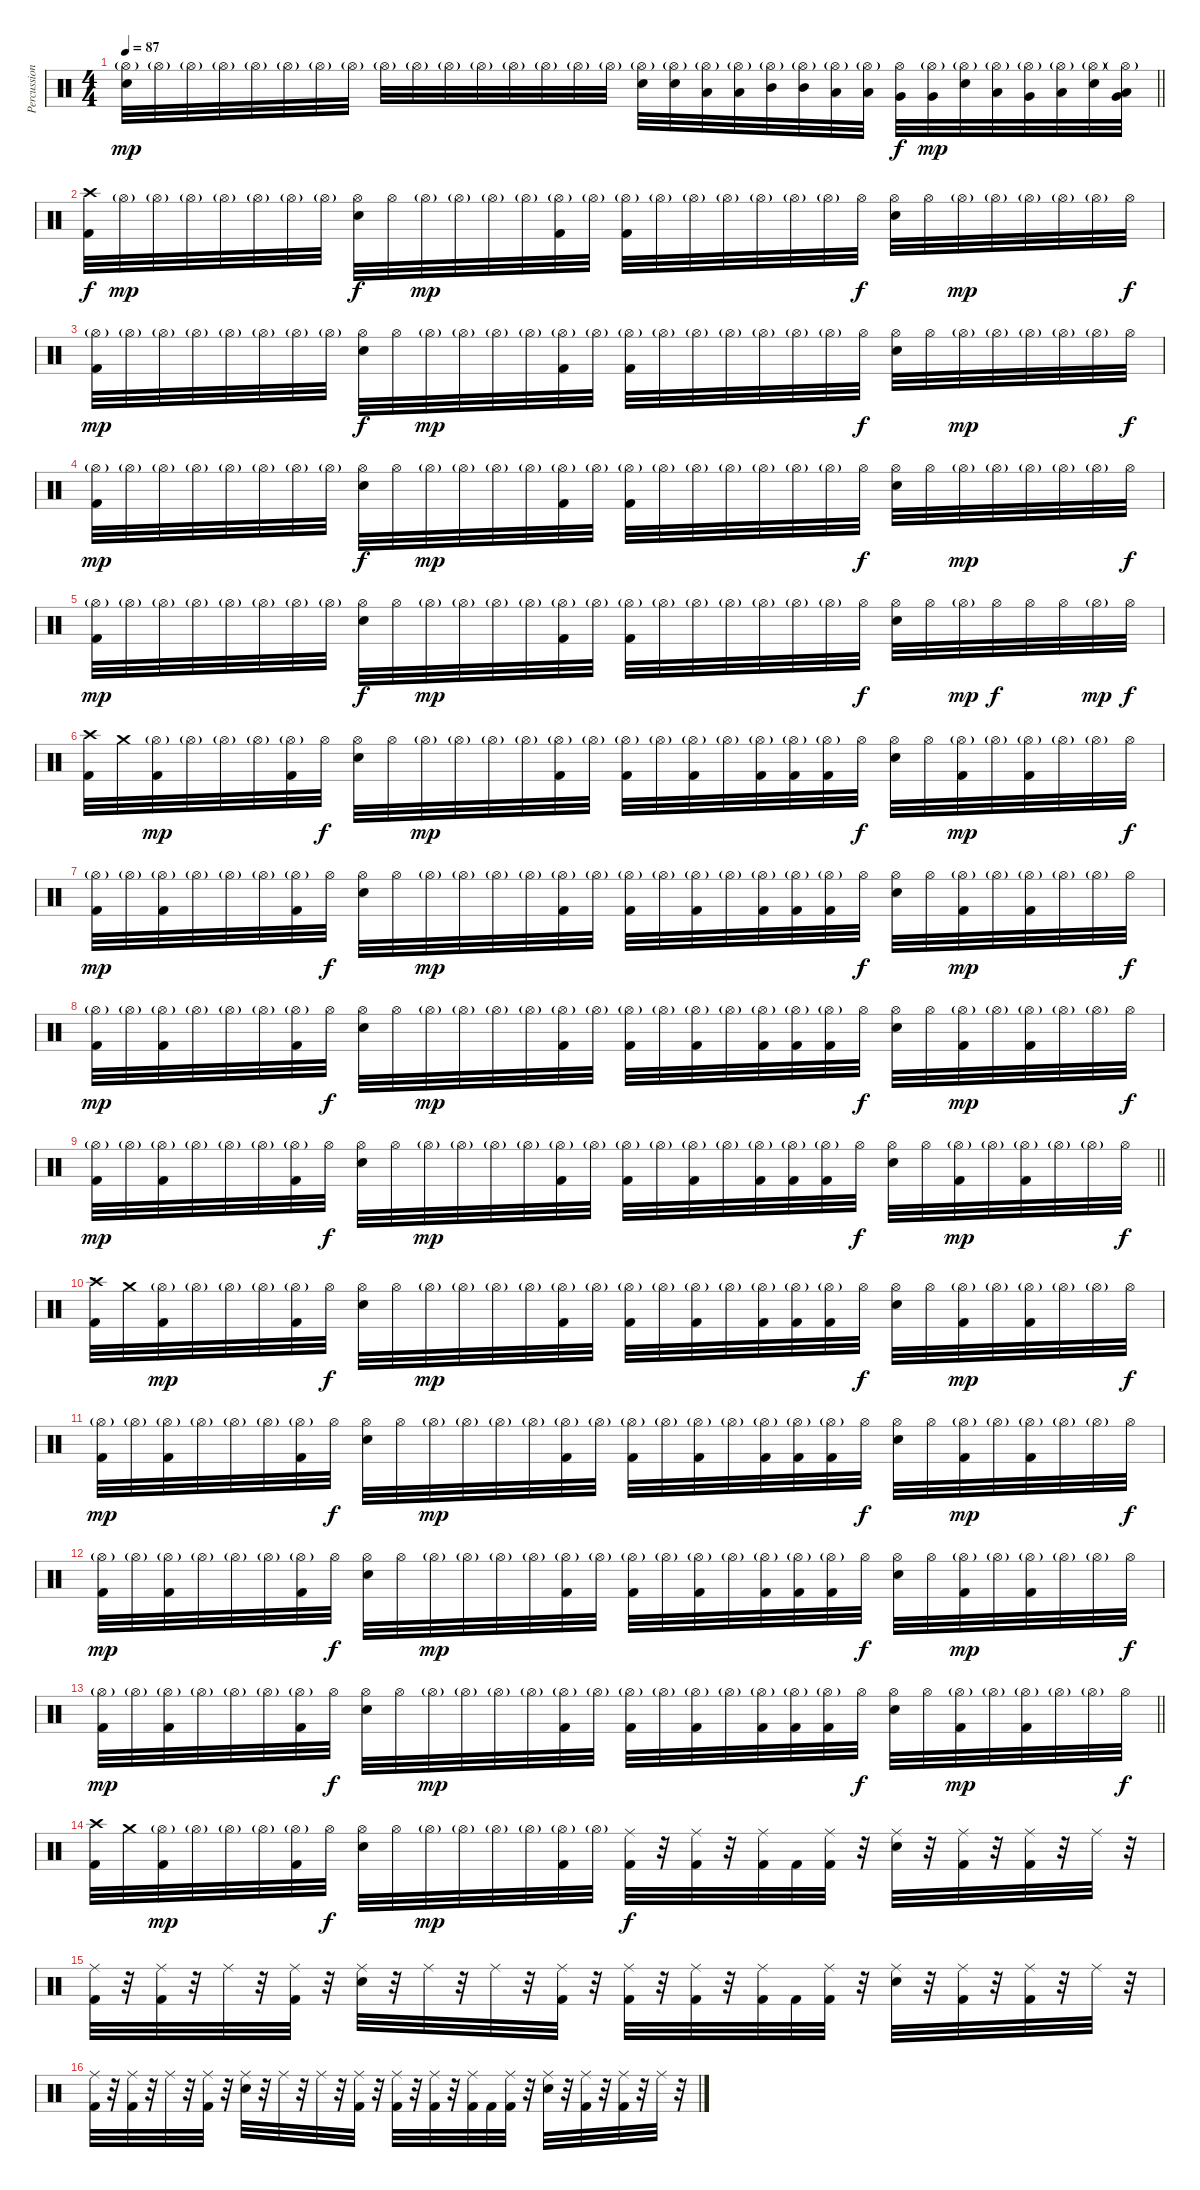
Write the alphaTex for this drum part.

\track ("Percussion" "Percussion") {instrument percussion}
\staff {score}
\articulation defaults
\ts (4 4)
\tempo 87
\clef neutral
\barLineRight lightlight
\ks c
("Hi-Hat (open)"{g} "Electric Snare (hit)").32{dy mp} "Hi-Hat (open)"{g}.32 "Hi-Hat (open)"{g}.32 "Hi-Hat (open)"{g}.32 "Hi-Hat (open)"{g}.32 "Hi-Hat (open)"{g}.32 "Hi-Hat (open)"{g}.32 "Hi-Hat (open)"{g}.32 "Hi-Hat (open)"{g}.32 "Hi-Hat (open)"{g}.32 "Hi-Hat (open)"{g}.32 "Hi-Hat (open)"{g}.32 "Hi-Hat (open)"{g}.32 "Hi-Hat (open)"{g}.32 "Hi-Hat (open)"{g}.32 "Hi-Hat (open)"{g}.32 ("Hi-Hat (open)"{g} "Electric Snare (hit)").32 ("Hi-Hat (open)"{g} "Electric Snare (hit)").32 ("Hi-Hat (open)"{g} "Low Floor Tom (hit)").32 ("Hi-Hat (open)"{g} "Low Floor Tom (hit)").32 ("Hi-Hat (open)"{g} "Mid Tom (hit)").32 ("Hi-Hat (open)"{g} "Mid Tom (hit)").32 ("Hi-Hat (open)"{g} "Low Tom (hit)").32 ("Hi-Hat (open)"{g} "Low Tom (hit)").32 ("Hi-Hat (open)" "Very Low Tom (hit)").32{dy f} ("Hi-Hat (open)"{g} "Very Low Tom (hit)").32{dy mp} ("Hi-Hat (open)"{g} "Electric Snare (hit)").32 ("Hi-Hat (open)"{g} "Low Tom (hit)").32 ("Hi-Hat (open)"{g} "Very Low Tom (hit)").32 ("Hi-Hat (open)"{g} "Low Floor Tom (hit)").32 ("Hi-Hat (open)"{g} "Electric Snare (hit)").32 ("Hi-Hat (open)"{g} "Low Floor Tom (hit)" "Very Low Tom (hit)").32 |
\section ("" ".")
("Crash high (hit)" "Kick (hit) 2").32{dy f} "Hi-Hat (open)"{g}.32{dy mp} "Hi-Hat (open)"{g}.32 "Hi-Hat (open)"{g}.32 "Hi-Hat (open)"{g}.32 "Hi-Hat (open)"{g}.32 "Hi-Hat (open)"{g}.32 "Hi-Hat (open)"{g}.32 ("Hi-Hat (open)" "Snare (hit) 2").32{dy f} "Hi-Hat (open)".32 "Hi-Hat (open)"{g}.32{dy mp} "Hi-Hat (open)"{g}.32 "Hi-Hat (open)"{g}.32 "Hi-Hat (open)"{g}.32 ("Hi-Hat (open)"{g} "Kick (hit) 2").32 "Hi-Hat (open)"{g}.32 ("Hi-Hat (open)"{g} "Kick (hit) 2").32 "Hi-Hat (open)"{g}.32 "Hi-Hat (open)"{g}.32 "Hi-Hat (open)"{g}.32 "Hi-Hat (open)"{g}.32 "Hi-Hat (open)"{g}.32 "Hi-Hat (open)"{g}.32 "Hi-Hat (open)".32{dy f} ("Hi-Hat (open)" "Snare (hit) 2").32 "Hi-Hat (open)".32 "Hi-Hat (open)"{g}.32{dy mp} "Hi-Hat (open)"{g}.32 "Hi-Hat (open)"{g}.32 "Hi-Hat (open)"{g}.32 "Hi-Hat (open)"{g}.32 "Hi-Hat (open)".32{dy f} |
("Hi-Hat (open)"{g} "Kick (hit) 2").32{dy mp} "Hi-Hat (open)"{g}.32 "Hi-Hat (open)"{g}.32 "Hi-Hat (open)"{g}.32 "Hi-Hat (open)"{g}.32 "Hi-Hat (open)"{g}.32 "Hi-Hat (open)"{g}.32 "Hi-Hat (open)"{g}.32 ("Hi-Hat (open)" "Snare (hit) 2").32{dy f} "Hi-Hat (open)".32 "Hi-Hat (open)"{g}.32{dy mp} "Hi-Hat (open)"{g}.32 "Hi-Hat (open)"{g}.32 "Hi-Hat (open)"{g}.32 ("Hi-Hat (open)"{g} "Kick (hit) 2").32 "Hi-Hat (open)"{g}.32 ("Hi-Hat (open)"{g} "Kick (hit) 2").32 "Hi-Hat (open)"{g}.32 "Hi-Hat (open)"{g}.32 "Hi-Hat (open)"{g}.32 "Hi-Hat (open)"{g}.32 "Hi-Hat (open)"{g}.32 "Hi-Hat (open)"{g}.32 "Hi-Hat (open)".32{dy f} ("Hi-Hat (open)" "Snare (hit) 2").32 "Hi-Hat (open)".32 "Hi-Hat (open)"{g}.32{dy mp} "Hi-Hat (open)"{g}.32 "Hi-Hat (open)"{g}.32 "Hi-Hat (open)"{g}.32 "Hi-Hat (open)"{g}.32 "Hi-Hat (open)".32{dy f} |
("Hi-Hat (open)"{g} "Kick (hit) 2").32{dy mp} "Hi-Hat (open)"{g}.32 "Hi-Hat (open)"{g}.32 "Hi-Hat (open)"{g}.32 "Hi-Hat (open)"{g}.32 "Hi-Hat (open)"{g}.32 "Hi-Hat (open)"{g}.32 "Hi-Hat (open)"{g}.32 ("Hi-Hat (open)" "Snare (hit) 2").32{dy f} "Hi-Hat (open)".32 "Hi-Hat (open)"{g}.32{dy mp} "Hi-Hat (open)"{g}.32 "Hi-Hat (open)"{g}.32 "Hi-Hat (open)"{g}.32 ("Hi-Hat (open)"{g} "Kick (hit) 2").32 "Hi-Hat (open)"{g}.32 ("Hi-Hat (open)"{g} "Kick (hit) 2").32 "Hi-Hat (open)"{g}.32 "Hi-Hat (open)"{g}.32 "Hi-Hat (open)"{g}.32 "Hi-Hat (open)"{g}.32 "Hi-Hat (open)"{g}.32 "Hi-Hat (open)"{g}.32 "Hi-Hat (open)".32{dy f} ("Hi-Hat (open)" "Snare (hit) 2").32 "Hi-Hat (open)".32 "Hi-Hat (open)"{g}.32{dy mp} "Hi-Hat (open)"{g}.32 "Hi-Hat (open)"{g}.32 "Hi-Hat (open)"{g}.32 "Hi-Hat (open)"{g}.32 "Hi-Hat (open)".32{dy f} |
("Hi-Hat (open)"{g} "Kick (hit) 2").32{dy mp} "Hi-Hat (open)"{g}.32 "Hi-Hat (open)"{g}.32 "Hi-Hat (open)"{g}.32 "Hi-Hat (open)"{g}.32 "Hi-Hat (open)"{g}.32 "Hi-Hat (open)"{g}.32 "Hi-Hat (open)"{g}.32 ("Hi-Hat (open)" "Snare (hit) 2").32{dy f} "Hi-Hat (open)".32 "Hi-Hat (open)"{g}.32{dy mp} "Hi-Hat (open)"{g}.32 "Hi-Hat (open)"{g}.32 "Hi-Hat (open)"{g}.32 ("Hi-Hat (open)"{g} "Kick (hit) 2").32 "Hi-Hat (open)"{g}.32 ("Hi-Hat (open)"{g} "Kick (hit) 2").32 "Hi-Hat (open)"{g}.32 "Hi-Hat (open)"{g}.32 "Hi-Hat (open)"{g}.32 "Hi-Hat (open)"{g}.32 "Hi-Hat (open)"{g}.32 "Hi-Hat (open)"{g}.32 "Hi-Hat (open)".32{dy f} ("Hi-Hat (open)" "Snare (hit) 2").32 "Hi-Hat (open)".32 "Hi-Hat (open)"{g}.32{dy mp} "Hi-Hat (open)".32{dy f} "Hi-Hat (open)".32 "Hi-Hat (open)".32 "Hi-Hat (open)"{g}.32{dy mp} "Hi-Hat (open)".32{dy f} |
("Crash high (hit)" "Kick (hit) 2").32 "Crash medium (hit)".32 ("Hi-Hat (open)"{g} "Kick (hit) 2").32{dy mp} "Hi-Hat (open)"{g}.32 "Hi-Hat (open)"{g}.32 "Hi-Hat (open)"{g}.32 ("Hi-Hat (open)"{g} "Kick (hit) 2").32 "Hi-Hat (open)".32{dy f} ("Hi-Hat (open)" "Snare (hit) 2").32 "Hi-Hat (open)".32 "Hi-Hat (open)"{g}.32{dy mp} "Hi-Hat (open)"{g}.32 "Hi-Hat (open)"{g}.32 "Hi-Hat (open)"{g}.32 ("Hi-Hat (open)"{g} "Kick (hit) 2").32 "Hi-Hat (open)"{g}.32 ("Hi-Hat (open)"{g} "Kick (hit) 2").32 "Hi-Hat (open)"{g}.32 ("Hi-Hat (open)"{g} "Kick (hit) 2").32 "Hi-Hat (open)"{g}.32 ("Hi-Hat (open)"{g} "Kick (hit) 2").32 ("Hi-Hat (open)"{g} "Kick (hit) 2").32 ("Hi-Hat (open)"{g} "Kick (hit) 2").32 "Hi-Hat (open)".32{dy f} ("Hi-Hat (open)" "Snare (hit) 2").32 "Hi-Hat (open)".32 ("Hi-Hat (open)"{g} "Kick (hit) 2").32{dy mp} "Hi-Hat (open)"{g}.32 ("Hi-Hat (open)"{g} "Kick (hit) 2").32 "Hi-Hat (open)"{g}.32 "Hi-Hat (open)"{g}.32 "Hi-Hat (open)".32{dy f} |
("Hi-Hat (open)"{g} "Kick (hit) 2").32{dy mp} "Hi-Hat (open)"{g}.32 ("Hi-Hat (open)"{g} "Kick (hit) 2").32 "Hi-Hat (open)"{g}.32 "Hi-Hat (open)"{g}.32 "Hi-Hat (open)"{g}.32 ("Hi-Hat (open)"{g} "Kick (hit) 2").32 "Hi-Hat (open)".32{dy f} ("Hi-Hat (open)" "Snare (hit) 2").32 "Hi-Hat (open)".32 "Hi-Hat (open)"{g}.32{dy mp} "Hi-Hat (open)"{g}.32 "Hi-Hat (open)"{g}.32 "Hi-Hat (open)"{g}.32 ("Hi-Hat (open)"{g} "Kick (hit) 2").32 "Hi-Hat (open)"{g}.32 ("Hi-Hat (open)"{g} "Kick (hit) 2").32 "Hi-Hat (open)"{g}.32 ("Hi-Hat (open)"{g} "Kick (hit) 2").32 "Hi-Hat (open)"{g}.32 ("Hi-Hat (open)"{g} "Kick (hit) 2").32 ("Hi-Hat (open)"{g} "Kick (hit) 2").32 ("Hi-Hat (open)"{g} "Kick (hit) 2").32 "Hi-Hat (open)".32{dy f} ("Hi-Hat (open)" "Snare (hit) 2").32 "Hi-Hat (open)".32 ("Hi-Hat (open)"{g} "Kick (hit) 2").32{dy mp} "Hi-Hat (open)"{g}.32 ("Hi-Hat (open)"{g} "Kick (hit) 2").32 "Hi-Hat (open)"{g}.32 "Hi-Hat (open)"{g}.32 "Hi-Hat (open)".32{dy f} |
("Hi-Hat (open)"{g} "Kick (hit) 2").32{dy mp} "Hi-Hat (open)"{g}.32 ("Hi-Hat (open)"{g} "Kick (hit) 2").32 "Hi-Hat (open)"{g}.32 "Hi-Hat (open)"{g}.32 "Hi-Hat (open)"{g}.32 ("Hi-Hat (open)"{g} "Kick (hit) 2").32 "Hi-Hat (open)".32{dy f} ("Hi-Hat (open)" "Snare (hit) 2").32 "Hi-Hat (open)".32 "Hi-Hat (open)"{g}.32{dy mp} "Hi-Hat (open)"{g}.32 "Hi-Hat (open)"{g}.32 "Hi-Hat (open)"{g}.32 ("Hi-Hat (open)"{g} "Kick (hit) 2").32 "Hi-Hat (open)"{g}.32 ("Hi-Hat (open)"{g} "Kick (hit) 2").32 "Hi-Hat (open)"{g}.32 ("Hi-Hat (open)"{g} "Kick (hit) 2").32 "Hi-Hat (open)"{g}.32 ("Hi-Hat (open)"{g} "Kick (hit) 2").32 ("Hi-Hat (open)"{g} "Kick (hit) 2").32 ("Hi-Hat (open)"{g} "Kick (hit) 2").32 "Hi-Hat (open)".32{dy f} ("Hi-Hat (open)" "Snare (hit) 2").32 "Hi-Hat (open)".32 ("Hi-Hat (open)"{g} "Kick (hit) 2").32{dy mp} "Hi-Hat (open)"{g}.32 ("Hi-Hat (open)"{g} "Kick (hit) 2").32 "Hi-Hat (open)"{g}.32 "Hi-Hat (open)"{g}.32 "Hi-Hat (open)".32{dy f} |
\barLineRight lightlight
("Hi-Hat (open)"{g} "Kick (hit) 2").32{dy mp} "Hi-Hat (open)"{g}.32 ("Hi-Hat (open)"{g} "Kick (hit) 2").32 "Hi-Hat (open)"{g}.32 "Hi-Hat (open)"{g}.32 "Hi-Hat (open)"{g}.32 ("Hi-Hat (open)"{g} "Kick (hit) 2").32 "Hi-Hat (open)".32{dy f} ("Hi-Hat (open)" "Snare (hit) 2").32 "Hi-Hat (open)".32 "Hi-Hat (open)"{g}.32{dy mp} "Hi-Hat (open)"{g}.32 "Hi-Hat (open)"{g}.32 "Hi-Hat (open)"{g}.32 ("Hi-Hat (open)"{g} "Kick (hit) 2").32 "Hi-Hat (open)"{g}.32 ("Hi-Hat (open)"{g} "Kick (hit) 2").32 "Hi-Hat (open)"{g}.32 ("Hi-Hat (open)"{g} "Kick (hit) 2").32 "Hi-Hat (open)"{g}.32 ("Hi-Hat (open)"{g} "Kick (hit) 2").32 ("Hi-Hat (open)"{g} "Kick (hit) 2").32 ("Hi-Hat (open)"{g} "Kick (hit) 2").32 "Hi-Hat (open)".32{dy f} ("Hi-Hat (open)" "Snare (hit) 2").32 "Hi-Hat (open)".32 ("Hi-Hat (open)"{g} "Kick (hit) 2").32{dy mp} "Hi-Hat (open)"{g}.32 ("Hi-Hat (open)"{g} "Kick (hit) 2").32 "Hi-Hat (open)"{g}.32 "Hi-Hat (open)"{g}.32 "Hi-Hat (open)".32{dy f} |
\section ("" "..")
("Crash high (hit)" "Kick (hit) 2").32 "Crash medium (hit)".32 ("Hi-Hat (open)"{g} "Kick (hit) 2").32{dy mp} "Hi-Hat (open)"{g}.32 "Hi-Hat (open)"{g}.32 "Hi-Hat (open)"{g}.32 ("Hi-Hat (open)"{g} "Kick (hit) 2").32 "Hi-Hat (open)".32{dy f} ("Hi-Hat (open)" "Snare (hit) 2").32 "Hi-Hat (open)".32 "Hi-Hat (open)"{g}.32{dy mp} "Hi-Hat (open)"{g}.32 "Hi-Hat (open)"{g}.32 "Hi-Hat (open)"{g}.32 ("Hi-Hat (open)"{g} "Kick (hit) 2").32 "Hi-Hat (open)"{g}.32 ("Hi-Hat (open)"{g} "Kick (hit) 2").32 "Hi-Hat (open)"{g}.32 ("Hi-Hat (open)"{g} "Kick (hit) 2").32 "Hi-Hat (open)"{g}.32 ("Hi-Hat (open)"{g} "Kick (hit) 2").32 ("Hi-Hat (open)"{g} "Kick (hit) 2").32 ("Hi-Hat (open)"{g} "Kick (hit) 2").32 "Hi-Hat (open)".32{dy f} ("Hi-Hat (open)" "Snare (hit) 2").32 "Hi-Hat (open)".32 ("Hi-Hat (open)"{g} "Kick (hit) 2").32{dy mp} "Hi-Hat (open)"{g}.32 ("Hi-Hat (open)"{g} "Kick (hit) 2").32 "Hi-Hat (open)"{g}.32 "Hi-Hat (open)"{g}.32 "Hi-Hat (open)".32{dy f} |
("Hi-Hat (open)"{g} "Kick (hit) 2").32{dy mp} "Hi-Hat (open)"{g}.32 ("Hi-Hat (open)"{g} "Kick (hit) 2").32 "Hi-Hat (open)"{g}.32 "Hi-Hat (open)"{g}.32 "Hi-Hat (open)"{g}.32 ("Hi-Hat (open)"{g} "Kick (hit) 2").32 "Hi-Hat (open)".32{dy f} ("Hi-Hat (open)" "Snare (hit) 2").32 "Hi-Hat (open)".32 "Hi-Hat (open)"{g}.32{dy mp} "Hi-Hat (open)"{g}.32 "Hi-Hat (open)"{g}.32 "Hi-Hat (open)"{g}.32 ("Hi-Hat (open)"{g} "Kick (hit) 2").32 "Hi-Hat (open)"{g}.32 ("Hi-Hat (open)"{g} "Kick (hit) 2").32 "Hi-Hat (open)"{g}.32 ("Hi-Hat (open)"{g} "Kick (hit) 2").32 "Hi-Hat (open)"{g}.32 ("Hi-Hat (open)"{g} "Kick (hit) 2").32 ("Hi-Hat (open)"{g} "Kick (hit) 2").32 ("Hi-Hat (open)"{g} "Kick (hit) 2").32 "Hi-Hat (open)".32{dy f} ("Hi-Hat (open)" "Snare (hit) 2").32 "Hi-Hat (open)".32 ("Hi-Hat (open)"{g} "Kick (hit) 2").32{dy mp} "Hi-Hat (open)"{g}.32 ("Hi-Hat (open)"{g} "Kick (hit) 2").32 "Hi-Hat (open)"{g}.32 "Hi-Hat (open)"{g}.32 "Hi-Hat (open)".32{dy f} |
("Hi-Hat (open)"{g} "Kick (hit) 2").32{dy mp} "Hi-Hat (open)"{g}.32 ("Hi-Hat (open)"{g} "Kick (hit) 2").32 "Hi-Hat (open)"{g}.32 "Hi-Hat (open)"{g}.32 "Hi-Hat (open)"{g}.32 ("Hi-Hat (open)"{g} "Kick (hit) 2").32 "Hi-Hat (open)".32{dy f} ("Hi-Hat (open)" "Snare (hit) 2").32 "Hi-Hat (open)".32 "Hi-Hat (open)"{g}.32{dy mp} "Hi-Hat (open)"{g}.32 "Hi-Hat (open)"{g}.32 "Hi-Hat (open)"{g}.32 ("Hi-Hat (open)"{g} "Kick (hit) 2").32 "Hi-Hat (open)"{g}.32 ("Hi-Hat (open)"{g} "Kick (hit) 2").32 "Hi-Hat (open)"{g}.32 ("Hi-Hat (open)"{g} "Kick (hit) 2").32 "Hi-Hat (open)"{g}.32 ("Hi-Hat (open)"{g} "Kick (hit) 2").32 ("Hi-Hat (open)"{g} "Kick (hit) 2").32 ("Hi-Hat (open)"{g} "Kick (hit) 2").32 "Hi-Hat (open)".32{dy f} ("Hi-Hat (open)" "Snare (hit) 2").32 "Hi-Hat (open)".32 ("Hi-Hat (open)"{g} "Kick (hit) 2").32{dy mp} "Hi-Hat (open)"{g}.32 ("Hi-Hat (open)"{g} "Kick (hit) 2").32 "Hi-Hat (open)"{g}.32 "Hi-Hat (open)"{g}.32 "Hi-Hat (open)".32{dy f} |
\barLineRight lightlight
("Hi-Hat (open)"{g} "Kick (hit) 2").32{dy mp} "Hi-Hat (open)"{g}.32 ("Hi-Hat (open)"{g} "Kick (hit) 2").32 "Hi-Hat (open)"{g}.32 "Hi-Hat (open)"{g}.32 "Hi-Hat (open)"{g}.32 ("Hi-Hat (open)"{g} "Kick (hit) 2").32 "Hi-Hat (open)".32{dy f} ("Hi-Hat (open)" "Snare (hit) 2").32 "Hi-Hat (open)".32 "Hi-Hat (open)"{g}.32{dy mp} "Hi-Hat (open)"{g}.32 "Hi-Hat (open)"{g}.32 "Hi-Hat (open)"{g}.32 ("Hi-Hat (open)"{g} "Kick (hit) 2").32 "Hi-Hat (open)"{g}.32 ("Hi-Hat (open)"{g} "Kick (hit) 2").32 "Hi-Hat (open)"{g}.32 ("Hi-Hat (open)"{g} "Kick (hit) 2").32 "Hi-Hat (open)"{g}.32 ("Hi-Hat (open)"{g} "Kick (hit) 2").32 ("Hi-Hat (open)"{g} "Kick (hit) 2").32 ("Hi-Hat (open)"{g} "Kick (hit) 2").32 "Hi-Hat (open)".32{dy f} ("Hi-Hat (open)" "Snare (hit) 2").32 "Hi-Hat (open)".32 ("Hi-Hat (open)"{g} "Kick (hit) 2").32{dy mp} "Hi-Hat (open)"{g}.32 ("Hi-Hat (open)"{g} "Kick (hit) 2").32 "Hi-Hat (open)"{g}.32 "Hi-Hat (open)"{g}.32 "Hi-Hat (open)".32{dy f} |
("Crash high (hit)" "Kick (hit) 2").32 "Crash medium (hit)".32 ("Hi-Hat (open)"{g} "Kick (hit) 2").32{dy mp} "Hi-Hat (open)"{g}.32 "Hi-Hat (open)"{g}.32 "Hi-Hat (open)"{g}.32 ("Hi-Hat (open)"{g} "Kick (hit) 2").32 "Hi-Hat (open)".32{dy f} ("Hi-Hat (open)" "Snare (hit) 2").32 "Hi-Hat (open)".32 "Hi-Hat (open)"{g}.32{dy mp} "Hi-Hat (open)"{g}.32 "Hi-Hat (open)"{g}.32 "Hi-Hat (open)"{g}.32 ("Hi-Hat (open)"{g} "Kick (hit) 2").32 "Hi-Hat (open)"{g}.32 ("Ride (middle)" "Kick (hit) 2").32{dy f} r.32 ("Ride (middle)" "Kick (hit) 2").32 r.32 ("Ride (middle)" "Kick (hit) 2").32 "Kick (hit) 2".32 ("Ride (middle)" "Kick (hit) 2").32 r.32 ("Ride (middle)" "Snare (hit) 2").32 r.32 ("Ride (middle)" "Kick (hit) 2").32 r.32 ("Ride (middle)" "Kick (hit) 2").32 r.32 "Ride (middle)".32 r.32 |
("Ride (middle)" "Kick (hit) 2").32 r.32 ("Ride (middle)" "Kick (hit) 2").32 r.32 "Ride (middle)".32 r.32 ("Ride (middle)" "Kick (hit) 2").32 r.32 ("Ride (middle)" "Snare (hit) 2").32 r.32 "Ride (middle)".32 r.32 "Ride (middle)".32 r.32 ("Ride (middle)" "Kick (hit) 2").32 r.32 ("Ride (middle)" "Kick (hit) 2").32 r.32 ("Ride (middle)" "Kick (hit) 2").32 r.32 ("Ride (middle)" "Kick (hit) 2").32 "Kick (hit) 2".32 ("Ride (middle)" "Kick (hit) 2").32 r.32 ("Ride (middle)" "Snare (hit) 2").32 r.32 ("Ride (middle)" "Kick (hit) 2").32 r.32 ("Ride (middle)" "Kick (hit) 2").32 r.32 "Ride (middle)".32 r.32 |
("Ride (middle)" "Kick (hit) 2").32 r.32 ("Ride (middle)" "Kick (hit) 2").32 r.32 "Ride (middle)".32 r.32 ("Ride (middle)" "Kick (hit) 2").32 r.32 ("Ride (middle)" "Snare (hit) 2").32 r.32 "Ride (middle)".32 r.32 "Ride (middle)".32 r.32 ("Ride (middle)" "Kick (hit) 2").32 r.32 ("Ride (middle)" "Kick (hit) 2").32 r.32 ("Ride (middle)" "Kick (hit) 2").32 r.32 ("Ride (middle)" "Kick (hit) 2").32 "Kick (hit) 2".32 ("Ride (middle)" "Kick (hit) 2").32 r.32 ("Ride (middle)" "Snare (hit) 2").32 r.32 ("Ride (middle)" "Kick (hit) 2").32 r.32 ("Ride (middle)" "Kick (hit) 2").32 r.32 "Ride (middle)".32 r.32
